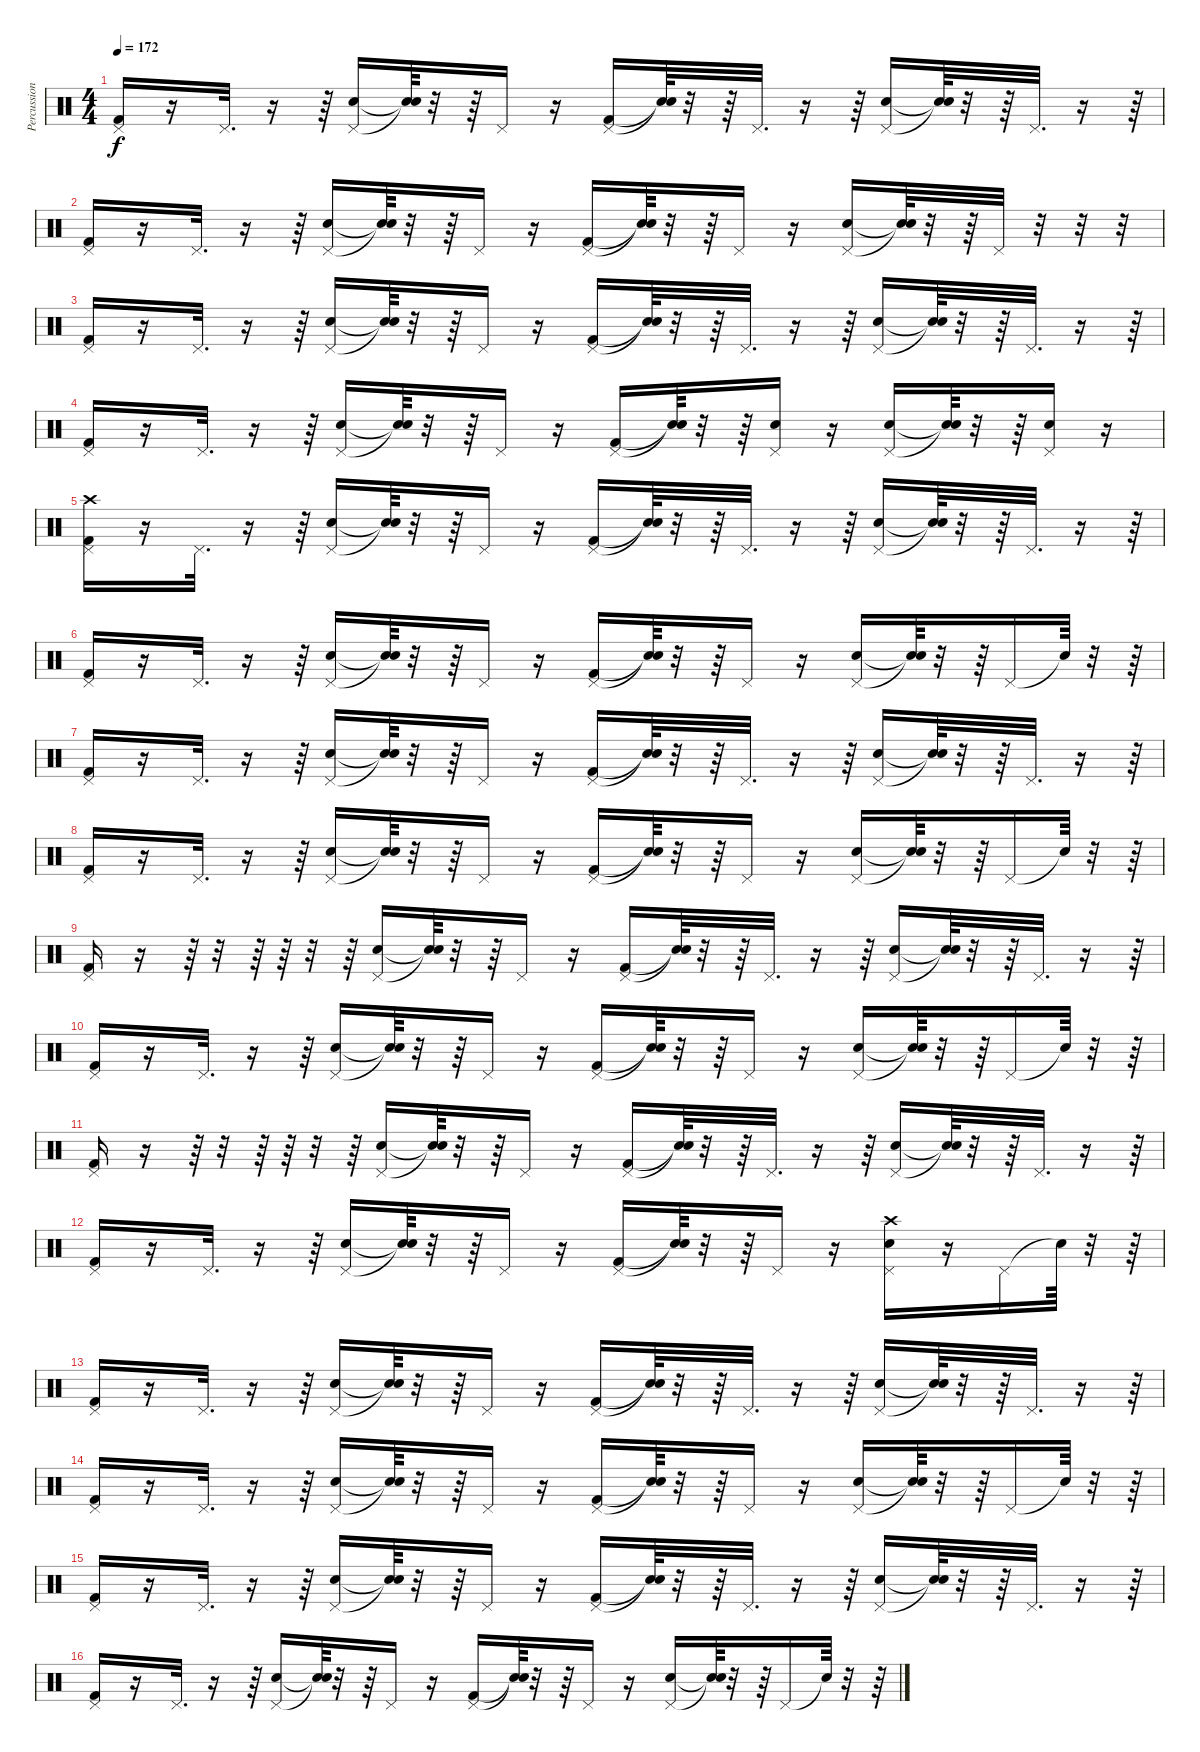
\track ("Percussions" "Percussion") {instrument percussion}
\staff {score}
\articulation defaults
\ts (4 4)
\tempo 172
\clef neutral
\ks c
("Pedal Hi-Hat (hit)" "Kick (hit) 2").16{dy f} r.16 "Pedal Hi-Hat (hit)".32{d} r.16 r.64 ("Pedal Hi-Hat (hit)" "Snare (hit) 2").16 ("Snare (hit)"{t} "Snare (hit)"{t}).64 r.32 r.64 "Pedal Hi-Hat (hit)".16 r.16 ("Pedal Hi-Hat (hit)" "Kick (hit) 2").16 ("Snare (hit)"{t} "Snare (hit)"{t}).64 r.32 r.64 "Pedal Hi-Hat (hit)".32{d} r.16 r.64 ("Pedal Hi-Hat (hit)" "Snare (hit) 2").16 ("Snare (hit)"{t} "Snare (hit)"{t}).64 r.32 r.64 "Pedal Hi-Hat (hit)".32{d} r.16 r.64 |
("Pedal Hi-Hat (hit)" "Kick (hit) 2").16 r.16 "Pedal Hi-Hat (hit)".32{d} r.16 r.64 ("Pedal Hi-Hat (hit)" "Snare (hit) 2").16 ("Snare (hit)"{t} "Snare (hit)"{t}).64 r.32 r.64 "Pedal Hi-Hat (hit)".16 r.16 ("Pedal Hi-Hat (hit)" "Kick (hit) 2").16 ("Snare (hit)"{t} "Snare (hit)"{t}).64 r.32 r.64 "Pedal Hi-Hat (hit)".16 r.16 ("Pedal Hi-Hat (hit)" "Snare (hit) 2").16 ("Snare (hit)"{t} "Snare (hit)"{t}).64 r.32 r.64 "Pedal Hi-Hat (hit)".32 r.32 r.32 r.32 |
("Pedal Hi-Hat (hit)" "Kick (hit) 2").16 r.16 "Pedal Hi-Hat (hit)".32{d} r.16 r.64 ("Pedal Hi-Hat (hit)" "Snare (hit) 2").16 ("Snare (hit)"{t} "Snare (hit)"{t}).64 r.32 r.64 "Pedal Hi-Hat (hit)".16 r.16 ("Pedal Hi-Hat (hit)" "Kick (hit) 2").16 ("Snare (hit)"{t} "Snare (hit)"{t}).64 r.32 r.64 "Pedal Hi-Hat (hit)".32{d} r.16 r.64 ("Pedal Hi-Hat (hit)" "Snare (hit) 2").16 ("Snare (hit)"{t} "Snare (hit)"{t}).64 r.32 r.64 "Pedal Hi-Hat (hit)".32{d} r.16 r.64 |
("Pedal Hi-Hat (hit)" "Kick (hit) 2").16 r.16 "Pedal Hi-Hat (hit)".32{d} r.16 r.64 ("Pedal Hi-Hat (hit)" "Snare (hit) 2").16 ("Snare (hit)"{t} "Snare (hit)"{t}).64 r.32 r.64 "Pedal Hi-Hat (hit)".16 r.16 ("Pedal Hi-Hat (hit)" "Kick (hit) 2").16 ("Snare (hit)"{t} "Snare (hit)"{t}).64 r.32 r.64 ("Pedal Hi-Hat (hit)" "Snare (hit) 2").16 r.16 ("Pedal Hi-Hat (hit)" "Snare (hit) 2").16 ("Snare (hit)"{t} "Snare (hit)"{t}).64 r.32 r.64 ("Snare (hit) 2" "Pedal Hi-Hat (hit)").16 r.16 |
("Pedal Hi-Hat (hit)" "Crash high (hit)" "Kick (hit) 2").16 r.16 "Pedal Hi-Hat (hit)".32{d} r.16 r.64 ("Pedal Hi-Hat (hit)" "Snare (hit) 2").16 ("Snare (hit)"{t} "Snare (hit)"{t}).64 r.32 r.64 "Pedal Hi-Hat (hit)".16 r.16 ("Pedal Hi-Hat (hit)" "Kick (hit) 2").16 ("Snare (hit)"{t} "Snare (hit)"{t}).64 r.32 r.64 "Pedal Hi-Hat (hit)".32{d} r.16 r.64 ("Pedal Hi-Hat (hit)" "Snare (hit) 2").16 ("Snare (hit)"{t} "Snare (hit)"{t}).64 r.32 r.64 "Pedal Hi-Hat (hit)".32{d} r.16 r.64 |
("Pedal Hi-Hat (hit)" "Kick (hit) 2").16 r.16 "Pedal Hi-Hat (hit)".32{d} r.16 r.64 ("Pedal Hi-Hat (hit)" "Snare (hit) 2").16 ("Snare (hit)"{t} "Snare (hit)"{t}).64 r.32 r.64 "Pedal Hi-Hat (hit)".16 r.16 ("Pedal Hi-Hat (hit)" "Kick (hit) 2").16 ("Snare (hit)"{t} "Snare (hit)"{t}).64 r.32 r.64 "Pedal Hi-Hat (hit)".16 r.16 ("Pedal Hi-Hat (hit)" "Snare (hit) 2").16 ("Snare (hit)"{t} "Snare (hit)"{t}).64 r.32 r.64 "Pedal Hi-Hat (hit)".16 "Snare (hit)"{t}.64 r.32 r.64 |
("Pedal Hi-Hat (hit)" "Kick (hit) 2").16 r.16 "Pedal Hi-Hat (hit)".32{d} r.16 r.64 ("Pedal Hi-Hat (hit)" "Snare (hit) 2").16 ("Snare (hit)"{t} "Snare (hit)"{t}).64 r.32 r.64 "Pedal Hi-Hat (hit)".16 r.16 ("Pedal Hi-Hat (hit)" "Kick (hit) 2").16 ("Snare (hit)"{t} "Snare (hit)"{t}).64 r.32 r.64 "Pedal Hi-Hat (hit)".32{d} r.16 r.64 ("Pedal Hi-Hat (hit)" "Snare (hit) 2").16 ("Snare (hit)"{t} "Snare (hit)"{t}).64 r.32 r.64 "Pedal Hi-Hat (hit)".32{d} r.16 r.64 |
("Pedal Hi-Hat (hit)" "Kick (hit) 2").16 r.16 "Pedal Hi-Hat (hit)".32{d} r.16 r.64 ("Pedal Hi-Hat (hit)" "Snare (hit) 2").16 ("Snare (hit)"{t} "Snare (hit)"{t}).64 r.32 r.64 "Pedal Hi-Hat (hit)".16 r.16 ("Pedal Hi-Hat (hit)" "Kick (hit) 2").16 ("Snare (hit)"{t} "Snare (hit)"{t}).64 r.32 r.64 "Pedal Hi-Hat (hit)".16 r.16 ("Pedal Hi-Hat (hit)" "Snare (hit) 2").16 ("Snare (hit)"{t} "Snare (hit)"{t}).64 r.32 r.64 "Pedal Hi-Hat (hit)".16 "Snare (hit)"{t}.64 r.32 r.64 |
("Pedal Hi-Hat (hit)" "Kick (hit) 2").16 r.16 r.64 r.32 r.64 r.64 r.32 r.64 ("Pedal Hi-Hat (hit)" "Snare (hit) 2").16 ("Snare (hit)"{t} "Snare (hit)"{t}).64 r.32 r.64 "Pedal Hi-Hat (hit)".16 r.16 ("Pedal Hi-Hat (hit)" "Kick (hit) 2").16 ("Snare (hit)"{t} "Snare (hit)"{t}).64 r.32 r.64 "Pedal Hi-Hat (hit)".32{d} r.16 r.64 ("Pedal Hi-Hat (hit)" "Snare (hit) 2").16 ("Snare (hit)"{t} "Snare (hit)"{t}).64 r.32 r.64 "Pedal Hi-Hat (hit)".32{d} r.16 r.64 |
("Pedal Hi-Hat (hit)" "Kick (hit) 2").16 r.16 "Pedal Hi-Hat (hit)".32{d} r.16 r.64 ("Pedal Hi-Hat (hit)" "Snare (hit) 2").16 ("Snare (hit)"{t} "Snare (hit)"{t}).64 r.32 r.64 "Pedal Hi-Hat (hit)".16 r.16 ("Pedal Hi-Hat (hit)" "Kick (hit) 2").16 ("Snare (hit)"{t} "Snare (hit)"{t}).64 r.32 r.64 "Pedal Hi-Hat (hit)".16 r.16 ("Pedal Hi-Hat (hit)" "Snare (hit) 2").16 ("Snare (hit)"{t} "Snare (hit)"{t}).64 r.32 r.64 "Pedal Hi-Hat (hit)".16 "Snare (hit)"{t}.64 r.32 r.64 |
("Pedal Hi-Hat (hit)" "Kick (hit) 2").16 r.16 r.64 r.32 r.64 r.64 r.32 r.64 ("Pedal Hi-Hat (hit)" "Snare (hit) 2").16 ("Snare (hit)"{t} "Snare (hit)"{t}).64 r.32 r.64 "Pedal Hi-Hat (hit)".16 r.16 ("Pedal Hi-Hat (hit)" "Kick (hit) 2").16 ("Snare (hit)"{t} "Snare (hit)"{t}).64 r.32 r.64 "Pedal Hi-Hat (hit)".32{d} r.16 r.64 ("Pedal Hi-Hat (hit)" "Snare (hit) 2").16 ("Snare (hit)"{t} "Snare (hit)"{t}).64 r.32 r.64 "Pedal Hi-Hat (hit)".32{d} r.16 r.64 |
("Pedal Hi-Hat (hit)" "Kick (hit) 2").16 r.16 "Pedal Hi-Hat (hit)".32{d} r.16 r.64 ("Pedal Hi-Hat (hit)" "Snare (hit) 2").16 ("Snare (hit)"{t} "Snare (hit)"{t}).64 r.32 r.64 "Pedal Hi-Hat (hit)".16 r.16 ("Pedal Hi-Hat (hit)" "Kick (hit) 2").16 ("Snare (hit)"{t} "Snare (hit)"{t}).64 r.32 r.64 "Pedal Hi-Hat (hit)".16 r.16 ("Crash high (hit)" "Pedal Hi-Hat (hit)" "Snare (hit) 2").16 r.16 "Pedal Hi-Hat (hit)".16 "Snare (hit)"{t}.64 r.32 r.64 |
("Pedal Hi-Hat (hit)" "Kick (hit) 2").16 r.16 "Pedal Hi-Hat (hit)".32{d} r.16 r.64 ("Pedal Hi-Hat (hit)" "Snare (hit) 2").16 ("Snare (hit)"{t} "Snare (hit)"{t}).64 r.32 r.64 "Pedal Hi-Hat (hit)".16 r.16 ("Pedal Hi-Hat (hit)" "Kick (hit) 2").16 ("Snare (hit)"{t} "Snare (hit)"{t}).64 r.32 r.64 "Pedal Hi-Hat (hit)".32{d} r.16 r.64 ("Pedal Hi-Hat (hit)" "Snare (hit) 2").16 ("Snare (hit)"{t} "Snare (hit)"{t}).64 r.32 r.64 "Pedal Hi-Hat (hit)".32{d} r.16 r.64 |
("Pedal Hi-Hat (hit)" "Kick (hit) 2").16 r.16 "Pedal Hi-Hat (hit)".32{d} r.16 r.64 ("Pedal Hi-Hat (hit)" "Snare (hit) 2").16 ("Snare (hit)"{t} "Snare (hit)"{t}).64 r.32 r.64 "Pedal Hi-Hat (hit)".16 r.16 ("Pedal Hi-Hat (hit)" "Kick (hit) 2").16 ("Snare (hit)"{t} "Snare (hit)"{t}).64 r.32 r.64 "Pedal Hi-Hat (hit)".16 r.16 ("Pedal Hi-Hat (hit)" "Snare (hit) 2").16 ("Snare (hit)"{t} "Snare (hit)"{t}).64 r.32 r.64 "Pedal Hi-Hat (hit)".16 "Snare (hit)"{t}.64 r.32 r.64 |
("Pedal Hi-Hat (hit)" "Kick (hit) 2").16 r.16 "Pedal Hi-Hat (hit)".32{d} r.16 r.64 ("Pedal Hi-Hat (hit)" "Snare (hit) 2").16 ("Snare (hit)"{t} "Snare (hit)"{t}).64 r.32 r.64 "Pedal Hi-Hat (hit)".16 r.16 ("Pedal Hi-Hat (hit)" "Kick (hit) 2").16 ("Snare (hit)"{t} "Snare (hit)"{t}).64 r.32 r.64 "Pedal Hi-Hat (hit)".32{d} r.16 r.64 ("Pedal Hi-Hat (hit)" "Snare (hit) 2").16 ("Snare (hit)"{t} "Snare (hit)"{t}).64 r.32 r.64 "Pedal Hi-Hat (hit)".32{d} r.16 r.64 |
("Pedal Hi-Hat (hit)" "Kick (hit) 2").16 r.16 "Pedal Hi-Hat (hit)".32{d} r.16 r.64 ("Pedal Hi-Hat (hit)" "Snare (hit) 2").16 ("Snare (hit)"{t} "Snare (hit)"{t}).64 r.32 r.64 "Pedal Hi-Hat (hit)".16 r.16 ("Pedal Hi-Hat (hit)" "Kick (hit) 2").16 ("Snare (hit)"{t} "Snare (hit)"{t}).64 r.32 r.64 "Pedal Hi-Hat (hit)".16 r.16 ("Pedal Hi-Hat (hit)" "Snare (hit) 2").16 ("Snare (hit)"{t} "Snare (hit)"{t}).64 r.32 r.64 "Pedal Hi-Hat (hit)".16 "Snare (hit)"{t}.64 r.32 r.64
